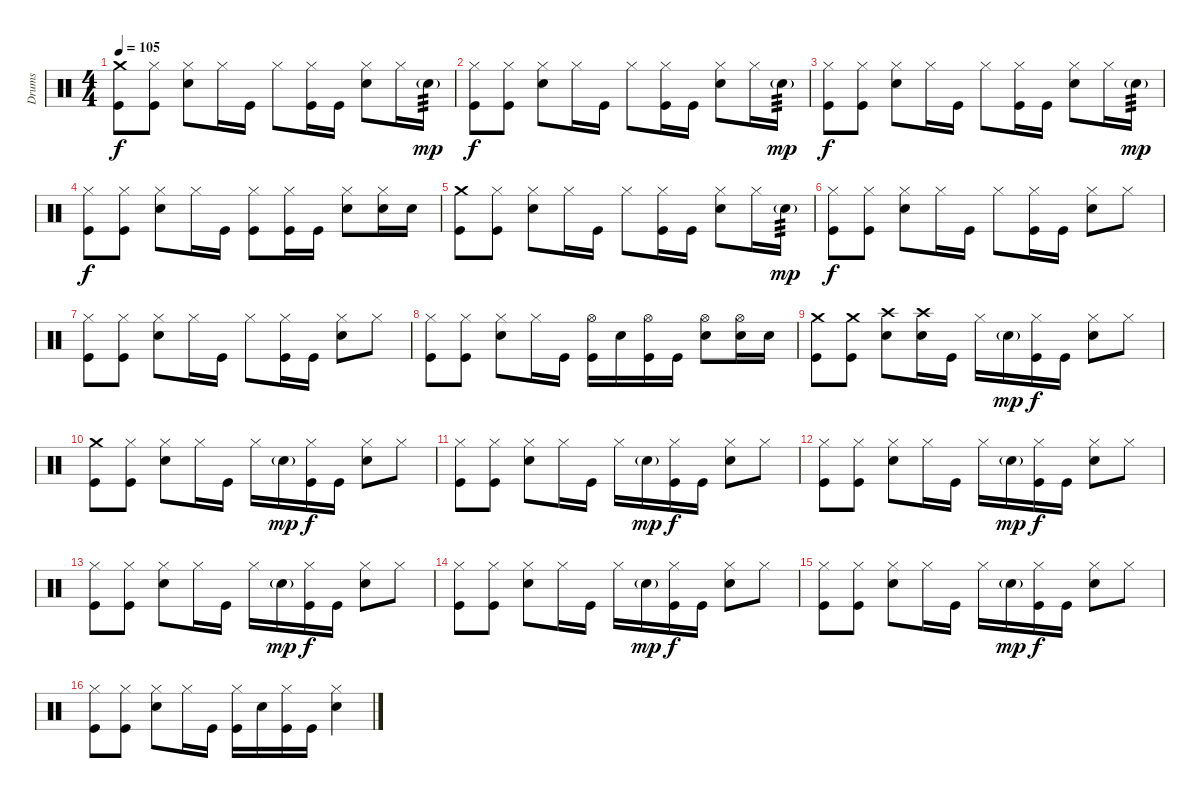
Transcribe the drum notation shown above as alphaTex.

\track ("Drums" "Drums") {instrument percussion}
\staff {score}
\articulation defaults
\ts (4 4)
\tempo 105
\clef neutral
\ks c
("Crash medium (hit)" "Kick (hit)").8{dy f} ("Hi-Hat (closed)" "Kick (hit)").8 ("Hi-Hat (closed)" "Electric Snare (hit)").8 "Hi-Hat (closed)".16 "Kick (hit)".16 "Hi-Hat (closed)".8 ("Hi-Hat (closed)" "Kick (hit)").16 "Kick (hit)".16 ("Hi-Hat (closed)" "Electric Snare (hit)").8 "Hi-Hat (closed)".16 "Electric Snare (hit)"{g}.16{tp 3 dy mp} |
("Hi-Hat (closed)" "Kick (hit)").8{dy f} ("Hi-Hat (closed)" "Kick (hit)").8 ("Hi-Hat (closed)" "Electric Snare (hit)").8 "Hi-Hat (closed)".16 "Kick (hit)".16 "Hi-Hat (closed)".8 ("Hi-Hat (closed)" "Kick (hit)").16 "Kick (hit)".16 ("Hi-Hat (closed)" "Electric Snare (hit)").8 "Hi-Hat (closed)".16 "Electric Snare (hit)"{g}.16{tp 3 dy mp} |
("Hi-Hat (closed)" "Kick (hit)").8{dy f} ("Hi-Hat (closed)" "Kick (hit)").8 ("Hi-Hat (closed)" "Electric Snare (hit)").8 "Hi-Hat (closed)".16 "Kick (hit)".16 "Hi-Hat (closed)".8 ("Hi-Hat (closed)" "Kick (hit)").16 "Kick (hit)".16 ("Hi-Hat (closed)" "Electric Snare (hit)").8 "Hi-Hat (closed)".16 "Electric Snare (hit)"{g}.16{tp 3 dy mp} |
("Hi-Hat (closed)" "Kick (hit)").8{dy f} ("Hi-Hat (closed)" "Kick (hit)").8 ("Hi-Hat (closed)" "Electric Snare (hit)").8 "Hi-Hat (closed)".16 "Kick (hit)".16 ("Hi-Hat (closed)" "Kick (hit)").8 ("Hi-Hat (closed)" "Kick (hit)").16 "Kick (hit)".16 ("Hi-Hat (closed)" "Electric Snare (hit)").8 ("Hi-Hat (closed)" "Electric Snare (hit)").16 "Electric Snare (hit)".16 |
("Crash medium (hit)" "Kick (hit)").8 ("Hi-Hat (closed)" "Kick (hit)").8 ("Hi-Hat (closed)" "Electric Snare (hit)").8 "Hi-Hat (closed)".16 "Kick (hit)".16 "Hi-Hat (closed)".8 ("Hi-Hat (closed)" "Kick (hit)").16 "Kick (hit)".16 ("Hi-Hat (closed)" "Electric Snare (hit)").8 "Hi-Hat (closed)".16 "Electric Snare (hit)"{g}.16{tp 3 dy mp} |
("Hi-Hat (closed)" "Kick (hit)").8{dy f} ("Hi-Hat (closed)" "Kick (hit)").8 ("Hi-Hat (closed)" "Electric Snare (hit)").8 "Hi-Hat (closed)".16 "Kick (hit)".16 "Hi-Hat (closed)".8 ("Hi-Hat (closed)" "Kick (hit)").16 "Kick (hit)".16 ("Hi-Hat (closed)" "Electric Snare (hit)").8 "Hi-Hat (closed)".8 |
("Hi-Hat (closed)" "Kick (hit)").8 ("Hi-Hat (closed)" "Kick (hit)").8 ("Hi-Hat (closed)" "Electric Snare (hit)").8 "Hi-Hat (closed)".16 "Kick (hit)".16 "Hi-Hat (closed)".8 ("Hi-Hat (closed)" "Kick (hit)").16 "Kick (hit)".16 ("Hi-Hat (closed)" "Electric Snare (hit)").8 "Hi-Hat (closed)".8 |
("Hi-Hat (closed)" "Kick (hit)").8 ("Hi-Hat (closed)" "Kick (hit)").8 ("Hi-Hat (closed)" "Electric Snare (hit)").8 "Hi-Hat (closed)".16 "Kick (hit)".16 ("Hi-Hat (open)" "Kick (hit)").16 "Electric Snare (hit)".16 ("Hi-Hat (open)" "Kick (hit)").16 "Kick (hit)".16 ("Hi-Hat (open)" "Electric Snare (hit)").8 ("Hi-Hat (open)" "Electric Snare (hit)").16 "Electric Snare (hit)".16 |
("Crash medium (hit)" "Kick (hit)").8 ("Crash medium (hit)" "Kick (hit)").8 ("Crash high (hit)" "Electric Snare (hit)").8 ("Crash high (hit)" "Electric Snare (hit)").16 "Kick (hit)".16 "Hi-Hat (closed)".16 "Electric Snare (hit)"{g}.16{dy mp} ("Hi-Hat (closed)" "Kick (hit)").16{dy f} "Kick (hit)".16 ("Hi-Hat (closed)" "Electric Snare (hit)").8 "Hi-Hat (closed)".8 |
("Crash medium (hit)" "Kick (hit)").8 ("Hi-Hat (closed)" "Kick (hit)").8 ("Hi-Hat (closed)" "Electric Snare (hit)").8 "Hi-Hat (closed)".16 "Kick (hit)".16 "Hi-Hat (closed)".16 "Electric Snare (hit)"{g}.16{dy mp} ("Hi-Hat (closed)" "Kick (hit)").16{dy f} "Kick (hit)".16 ("Hi-Hat (closed)" "Electric Snare (hit)").8 "Hi-Hat (closed)".8 |
("Hi-Hat (closed)" "Kick (hit)").8 ("Hi-Hat (closed)" "Kick (hit)").8 ("Hi-Hat (closed)" "Electric Snare (hit)").8 "Hi-Hat (closed)".16 "Kick (hit)".16 "Hi-Hat (closed)".16 "Electric Snare (hit)"{g}.16{dy mp} ("Hi-Hat (closed)" "Kick (hit)").16{dy f} "Kick (hit)".16 ("Hi-Hat (closed)" "Electric Snare (hit)").8 "Hi-Hat (closed)".8 |
("Hi-Hat (closed)" "Kick (hit)").8 ("Hi-Hat (closed)" "Kick (hit)").8 ("Hi-Hat (closed)" "Electric Snare (hit)").8 "Hi-Hat (closed)".16 "Kick (hit)".16 "Hi-Hat (closed)".16 "Electric Snare (hit)"{g}.16{dy mp} ("Hi-Hat (closed)" "Kick (hit)").16{dy f} "Kick (hit)".16 ("Hi-Hat (closed)" "Electric Snare (hit)").8 "Hi-Hat (closed)".8 |
("Hi-Hat (closed)" "Kick (hit)").8 ("Hi-Hat (closed)" "Kick (hit)").8 ("Hi-Hat (closed)" "Electric Snare (hit)").8 "Hi-Hat (closed)".16 "Kick (hit)".16 "Hi-Hat (closed)".16 "Electric Snare (hit)"{g}.16{dy mp} ("Hi-Hat (closed)" "Kick (hit)").16{dy f} "Kick (hit)".16 ("Hi-Hat (closed)" "Electric Snare (hit)").8 "Hi-Hat (closed)".8 |
("Hi-Hat (closed)" "Kick (hit)").8 ("Hi-Hat (closed)" "Kick (hit)").8 ("Hi-Hat (closed)" "Electric Snare (hit)").8 "Hi-Hat (closed)".16 "Kick (hit)".16 "Hi-Hat (closed)".16 "Electric Snare (hit)"{g}.16{dy mp} ("Hi-Hat (closed)" "Kick (hit)").16{dy f} "Kick (hit)".16 ("Hi-Hat (closed)" "Electric Snare (hit)").8 "Hi-Hat (closed)".8 |
("Hi-Hat (closed)" "Kick (hit)").8 ("Hi-Hat (closed)" "Kick (hit)").8 ("Hi-Hat (closed)" "Electric Snare (hit)").8 "Hi-Hat (closed)".16 "Kick (hit)".16 "Hi-Hat (closed)".16 "Electric Snare (hit)"{g}.16{dy mp} ("Hi-Hat (closed)" "Kick (hit)").16{dy f} "Kick (hit)".16 ("Hi-Hat (closed)" "Electric Snare (hit)").8 "Hi-Hat (closed)".8 |
("Hi-Hat (closed)" "Kick (hit)").8 ("Hi-Hat (closed)" "Kick (hit)").8 ("Hi-Hat (closed)" "Electric Snare (hit)").8 "Hi-Hat (closed)".16 "Kick (hit)".16 ("Hi-Hat (closed)" "Kick (hit)").16 "Electric Snare (hit)".16 ("Hi-Hat (closed)" "Kick (hit)").16 "Kick (hit)".16 ("Hi-Hat (closed)" "Electric Snare (hit)").4
